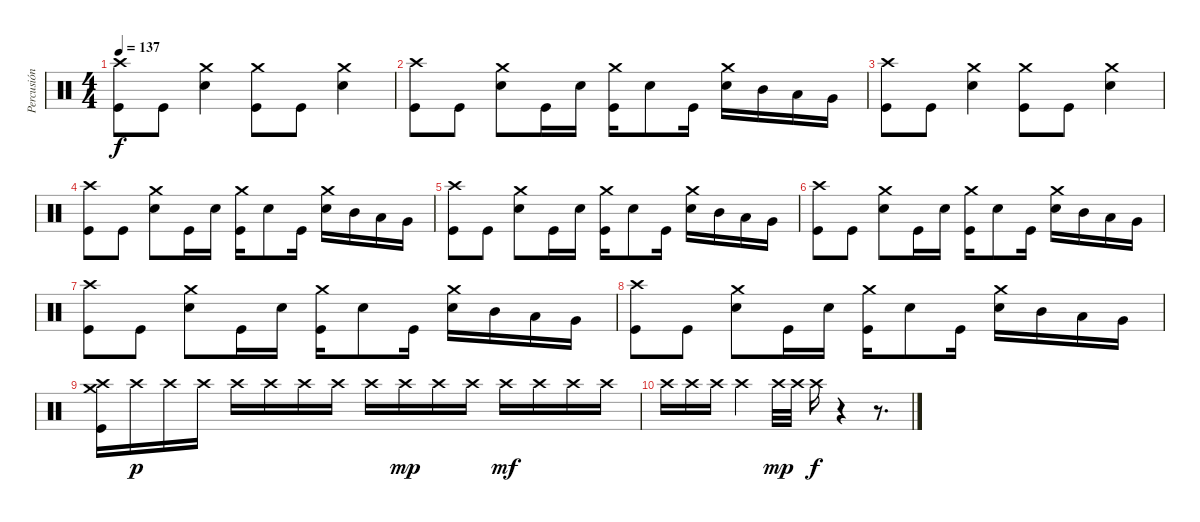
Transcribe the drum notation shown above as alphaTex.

\track ("Percusión" "Percusión") {instrument percussion}
\staff {score}
\articulation defaults
\ts (4 4)
\tempo 137
\clef neutral
\ks c
("Crash high (hit)" "Kick (hit)").8{dy f} "Kick (hit)".8 ("Crash medium (hit)" "Snare (hit) 2").4 ("Crash medium (hit)" "Kick (hit)").8 "Kick (hit)".8 ("Crash medium (hit)" "Snare (hit) 2").4 |
("Crash high (hit)" "Kick (hit)").8 "Kick (hit)".8 ("Crash medium (hit)" "Snare (hit) 2").8 "Kick (hit)".16 "Snare (hit) 2".16 ("Crash medium (hit)" "Kick (hit)").16 "Snare (hit) 2".8 "Kick (hit)".16 ("Crash medium (hit)" "Snare (hit) 2").16 "Mid Tom (hit)".16 "Low Tom (hit)".16 "Very Low Tom (hit)".16 |
("Crash high (hit)" "Kick (hit)").8 "Kick (hit)".8 ("Crash medium (hit)" "Snare (hit) 2").4 ("Crash medium (hit)" "Kick (hit)").8 "Kick (hit)".8 ("Crash medium (hit)" "Snare (hit) 2").4 |
("Crash high (hit)" "Kick (hit)").8 "Kick (hit)".8 ("Crash medium (hit)" "Snare (hit) 2").8 "Kick (hit)".16 "Snare (hit) 2".16 ("Crash medium (hit)" "Kick (hit)").16 "Snare (hit) 2".8 "Kick (hit)".16 ("Crash medium (hit)" "Snare (hit) 2").16 "Mid Tom (hit)".16 "Low Tom (hit)".16 "Very Low Tom (hit)".16 |
("Crash high (hit)" "Kick (hit)").8 "Kick (hit)".8 ("Crash medium (hit)" "Snare (hit) 2").8 "Kick (hit)".16 "Snare (hit) 2".16 ("Crash medium (hit)" "Kick (hit)").16 "Snare (hit) 2".8 "Kick (hit)".16 ("Crash medium (hit)" "Snare (hit) 2").16 "Mid Tom (hit)".16 "Low Tom (hit)".16 "Very Low Tom (hit)".16 |
("Crash high (hit)" "Kick (hit)").8 "Kick (hit)".8 ("Crash medium (hit)" "Snare (hit) 2").8 "Kick (hit)".16 "Snare (hit) 2".16 ("Crash medium (hit)" "Kick (hit)").16 "Snare (hit) 2".8 "Kick (hit)".16 ("Crash medium (hit)" "Snare (hit) 2").16 "Mid Tom (hit)".16 "Low Tom (hit)".16 "Very Low Tom (hit)".16 |
("Crash high (hit)" "Kick (hit)").8 "Kick (hit)".8 ("Crash medium (hit)" "Snare (hit) 2").8 "Kick (hit)".16 "Snare (hit) 2".16 ("Crash medium (hit)" "Kick (hit)").16 "Snare (hit) 2".8 "Kick (hit)".16 ("Crash medium (hit)" "Snare (hit) 2").16 "Mid Tom (hit)".16 "Low Tom (hit)".16 "Very Low Tom (hit)".16 |
("Crash high (hit)" "Kick (hit)").8 "Kick (hit)".8 ("Crash medium (hit)" "Snare (hit) 2").8 "Kick (hit)".16 "Snare (hit) 2".16 ("Crash medium (hit)" "Kick (hit)").16 "Snare (hit) 2".8 "Kick (hit)".16 ("Crash medium (hit)" "Snare (hit) 2").16 "Mid Tom (hit)".16 "Low Tom (hit)".16 "Very Low Tom (hit)".16 |
("Crash medium (hit)" "Crash high (hit)" "Kick (hit)").16 "Crash high (hit)".16{dy p} "Crash high (hit)".16 "Crash high (hit)".16 "Crash high (hit)".16 "Crash high (hit)".16 "Crash high (hit)".16 "Crash high (hit)".16 "Crash high (hit)".16 "Crash high (hit)".16{dy mp} "Crash high (hit)".16 "Crash high (hit)".16 "Crash high (hit)".16{dy mf} "Crash high (hit)".16 "Crash high (hit)".16 "Crash high (hit)".16 |
"Crash high (hit)".16 "Crash high (hit)".16 "Crash high (hit)".16 "Crash high (hit)".4 "Crash high (hit)".32{dy mp} "Crash high (hit)".32 "Crash high (hit)".16{dy f} r.4 r.8{d}
